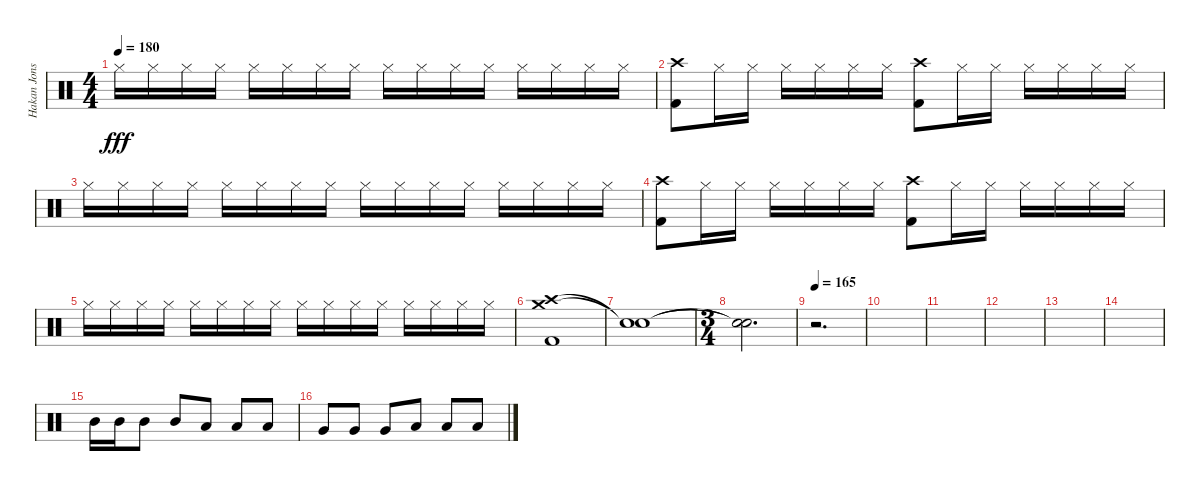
\track ("Hakan Jonsson" "Hakan Jons") {instrument percussion}
\staff {score}
\articulation defaults
\ts (4 4)
\tempo 180
\clef neutral
\ks c "Hi-Hat (closed)".16{dy fff} "Hi-Hat (closed)".16 "Hi-Hat (closed)".16 "Hi-Hat (closed)".16 "Hi-Hat (closed)".16 "Hi-Hat (closed)".16 "Hi-Hat (closed)".16 "Hi-Hat (closed)".16 "Hi-Hat (closed)".16 "Hi-Hat (closed)".16 "Hi-Hat (closed)".16 "Hi-Hat (closed)".16 "Hi-Hat (closed)".16 "Hi-Hat (closed)".16 "Hi-Hat (closed)".16 "Hi-Hat (closed)".16
|
("Crash high (hit)" "Kick (hit) 2").8 "Hi-Hat (closed)".16 "Hi-Hat (closed)".16 "Hi-Hat (closed)".16 "Hi-Hat (closed)".16 "Hi-Hat (closed)".16 "Hi-Hat (closed)".16 ("Crash high (hit)" "Kick (hit) 2").8 "Hi-Hat (closed)".16 "Hi-Hat (closed)".16 "Hi-Hat (closed)".16 "Hi-Hat (closed)".16 "Hi-Hat (closed)".16 "Hi-Hat (closed)".16 |
"Hi-Hat (closed)".16 "Hi-Hat (closed)".16 "Hi-Hat (closed)".16 "Hi-Hat (closed)".16 "Hi-Hat (closed)".16 "Hi-Hat (closed)".16 "Hi-Hat (closed)".16 "Hi-Hat (closed)".16 "Hi-Hat (closed)".16 "Hi-Hat (closed)".16 "Hi-Hat (closed)".16 "Hi-Hat (closed)".16 "Hi-Hat (closed)".16 "Hi-Hat (closed)".16 "Hi-Hat (closed)".16 "Hi-Hat (closed)".16 |
("Crash high (hit)" "Kick (hit) 2").8 "Hi-Hat (closed)".16 "Hi-Hat (closed)".16 "Hi-Hat (closed)".16 "Hi-Hat (closed)".16 "Hi-Hat (closed)".16 "Hi-Hat (closed)".16 ("Crash high (hit)" "Kick (hit) 2").8 "Hi-Hat (closed)".16 "Hi-Hat (closed)".16 "Hi-Hat (closed)".16 "Hi-Hat (closed)".16 "Hi-Hat (closed)".16 "Hi-Hat (closed)".16 |
"Hi-Hat (closed)".16 "Hi-Hat (closed)".16 "Hi-Hat (closed)".16 "Hi-Hat (closed)".16 "Hi-Hat (closed)".16 "Hi-Hat (closed)".16 "Hi-Hat (closed)".16 "Hi-Hat (closed)".16 "Hi-Hat (closed)".16 "Hi-Hat (closed)".16 "Hi-Hat (closed)".16 "Hi-Hat (closed)".16 "Hi-Hat (closed)".16 "Hi-Hat (closed)".16 "Hi-Hat (closed)".16 "Hi-Hat (closed)".16 |
("Crash high (hit)" "Crash medium (hit)" "Kick (hit) 2").1 |
("Snare (hit)"{t} "Snare (hit)"{t}).1 |
\ts (3 4)
("Snare (hit)"{t} "Snare (hit)"{t}).2{d} |
\tempo 165
r.2{d} |
|
|
|
|
|
"Mid Tom (hit)".16 "Mid Tom (hit)".16 "Mid Tom (hit)".8 "Mid Tom (hit)".8 "Low Tom (hit)".8 "Low Tom (hit)".8 "Low Tom (hit)".8 |
"Very Low Tom (hit)".8 "Very Low Tom (hit)".8 "Very Low Tom (hit)".8 "Low Floor Tom (hit)".8 "Low Floor Tom (hit)".8 "Low Floor Tom (hit)".8
